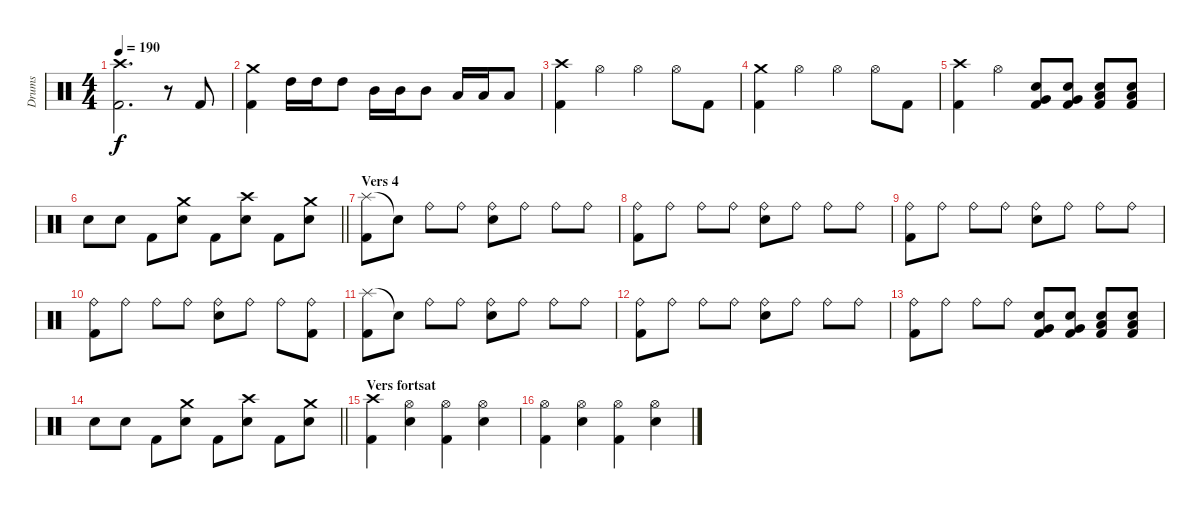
\track ("Drums" "Drums") {instrument percussion}
\staff {score}
\articulation defaults
\ts (4 4)
\tempo 190
\clef neutral
\ks c
("Crash high (hit)" "Kick (hit) 2").2{d dy f} r.8 "Kick (hit) 2".8 |
("Crash medium (hit)" "Kick (hit) 2").4 "High Tom (hit)".16 "High Tom (hit)".16 "High Tom (hit)".8 "Mid Tom (hit)".16 "Mid Tom (hit)".16 "Mid Tom (hit)".8 "Low Tom (hit)".16 "Low Tom (hit)".16 "Low Tom (hit)".8 |
("Crash high (hit)" "Kick (hit) 2").4 "Hi-Hat (open)".4 "Hi-Hat (open)".4 "Hi-Hat (open)".8 "Kick (hit) 2".8 |
("Crash medium (hit)" "Kick (hit) 2").4 "Hi-Hat (open)".4 "Hi-Hat (open)".4 "Hi-Hat (open)".8 "Kick (hit) 2".8 |
("Crash high (hit)" "Kick (hit) 2").4 "Hi-Hat (open)".4 ("Very Low Tom (hit)" "Snare (hit) 2" "Kick (hit) 2").8{volume 8} ("Very Low Tom (hit)" "Snare (hit) 2" "Kick (hit) 2").8{volume 11} ("Low Floor Tom (hit)" "Snare (hit) 2" "Kick (hit) 2").8{volume 13} ("Low Floor Tom (hit)" "Snare (hit) 2" "Kick (hit) 2").8{volume 16} |
\barLineRight lightlight "Snare (hit) 2".8 "Snare (hit) 2".8 "Kick (hit) 2".8
("Crash medium (hit)" "Snare (hit) 2").8 "Kick (hit) 2".8 ("Crash high (hit)" "Snare (hit) 2").8 "Kick (hit) 2".8 ("Crash medium (hit)" "Snare (hit) 2").8 |
\section ("" "Vers 4")
("Splash (hit)" "Kick (hit) 2").8 "Snare (hit)"{t}.8 "Ride (bell)".8 "Ride (bell)".8 ("Ride (bell)" "Snare (hit) 2").8 "Ride (bell)".8 "Ride (bell)".8 "Ride (bell)".8 |
("Ride (bell)" "Kick (hit) 2").8 "Ride (bell)".8 "Ride (bell)".8 "Ride (bell)".8 ("Ride (bell)" "Snare (hit) 2").8 "Ride (bell)".8 "Ride (bell)".8 "Ride (bell)".8 |
("Ride (bell)" "Kick (hit) 2").8 "Ride (bell)".8 "Ride (bell)".8 "Ride (bell)".8 ("Ride (bell)" "Snare (hit) 2").8 "Ride (bell)".8 "Ride (bell)".8 "Ride (bell)".8 |
("Ride (bell)" "Kick (hit) 2").8 "Ride (bell)".8 "Ride (bell)".8 "Ride (bell)".8 ("Ride (bell)" "Snare (hit) 2").8 "Ride (bell)".8 "Ride (bell)".8 ("Ride (bell)" "Kick (hit) 2").8 |
("Splash (hit)" "Kick (hit) 2").8 "Snare (hit)"{t}.8 "Ride (bell)".8 "Ride (bell)".8 ("Ride (bell)" "Snare (hit) 2").8 "Ride (bell)".8 "Ride (bell)".8 "Ride (bell)".8 |
("Ride (bell)" "Kick (hit) 2").8 "Ride (bell)".8 "Ride (bell)".8 "Ride (bell)".8 ("Ride (bell)" "Snare (hit) 2").8 "Ride (bell)".8 "Ride (bell)".8 "Ride (bell)".8 |
("Ride (bell)" "Kick (hit) 2").8 "Ride (bell)".8 "Ride (bell)".8 "Ride (bell)".8 ("Very Low Tom (hit)" "Snare (hit) 2" "Kick (hit) 2").8{volume 8} ("Very Low Tom (hit)" "Snare (hit) 2" "Kick (hit) 2").8{volume 11} ("Low Floor Tom (hit)" "Snare (hit) 2" "Kick (hit) 2").8{volume 13} ("Low Floor Tom (hit)" "Snare (hit) 2" "Kick (hit) 2").8{volume 16} |
\barLineRight lightlight "Snare (hit) 2".8 "Snare (hit) 2".8 "Kick (hit) 2".8
("Crash medium (hit)" "Snare (hit) 2").8 "Kick (hit) 2".8 ("Crash high (hit)" "Snare (hit) 2").8 "Kick (hit) 2".8 ("Crash medium (hit)" "Snare (hit) 2").8 |
\section ("" "Vers fortsat")
("Crash high (hit)" "Kick (hit) 2").4 ("Hi-Hat (open)" "Snare (hit) 2").4 ("Hi-Hat (open)" "Kick (hit) 2").4 ("Hi-Hat (open)" "Snare (hit) 2").4 |
("Hi-Hat (open)" "Kick (hit) 2").4 ("Hi-Hat (open)" "Snare (hit) 2").4 ("Hi-Hat (open)" "Kick (hit) 2").4 ("Hi-Hat (open)" "Snare (hit) 2").4
